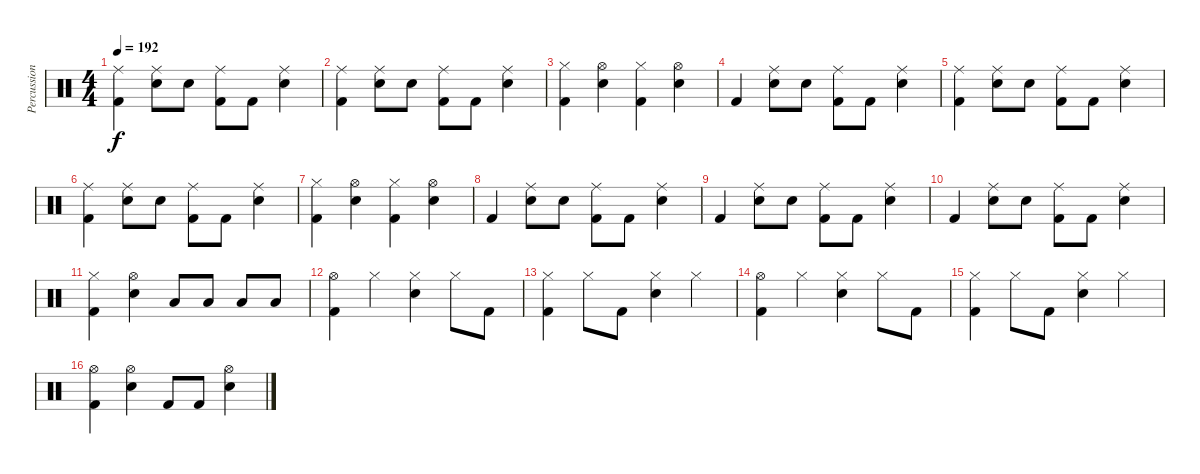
\track ("Percussions" "Percussion") {instrument percussion}
\staff {score}
\articulation defaults
\ts (4 4)
\tempo 192
\clef neutral
\ks c
("Kick (hit) 2" "Ride (middle)").4{dy f} ("Electric Snare (hit)" "Ride (middle)").8 "Electric Snare (hit)".8 ("Kick (hit) 2" "Ride (middle)").8 "Kick (hit) 2".8 ("Electric Snare (hit)" "Ride (middle)").4 |
("Kick (hit) 2" "Ride (middle)").4 ("Electric Snare (hit)" "Ride (middle)").8 "Electric Snare (hit)".8 ("Kick (hit) 2" "Ride (middle)").8 "Kick (hit) 2".8 ("Electric Snare (hit)" "Ride (middle)").4 |
("Kick (hit) 2" "Hi-Hat (closed)").4 ("Electric Snare (hit)" "Hi-Hat (open)").4 ("Kick (hit) 2" "Hi-Hat (closed)").4 ("Electric Snare (hit)" "Hi-Hat (open)").4 |
"Kick (hit) 2".4 ("Electric Snare (hit)" "Ride (middle)").8 "Electric Snare (hit)".8 ("Kick (hit) 2" "Ride (middle)").8 "Kick (hit) 2".8 ("Electric Snare (hit)" "Ride (middle)").4 |
("Kick (hit) 2" "Ride (middle)").4 ("Electric Snare (hit)" "Ride (middle)").8 "Electric Snare (hit)".8 ("Kick (hit) 2" "Ride (middle)").8 "Kick (hit) 2".8 ("Electric Snare (hit)" "Ride (middle)").4 |
("Kick (hit) 2" "Ride (middle)").4 ("Electric Snare (hit)" "Ride (middle)").8 "Electric Snare (hit)".8 ("Kick (hit) 2" "Ride (middle)").8 "Kick (hit) 2".8 ("Electric Snare (hit)" "Ride (middle)").4 |
("Kick (hit) 2" "Hi-Hat (closed)").4 ("Electric Snare (hit)" "Hi-Hat (open)").4 ("Kick (hit) 2" "Hi-Hat (closed)").4 ("Electric Snare (hit)" "Hi-Hat (open)").4 |
"Kick (hit) 2".4 ("Electric Snare (hit)" "Ride (middle)").8 "Electric Snare (hit)".8 ("Kick (hit) 2" "Ride (middle)").8 "Kick (hit) 2".8 ("Electric Snare (hit)" "Ride (middle)").4 |
"Kick (hit) 2".4 ("Electric Snare (hit)" "Ride (middle)").8 "Electric Snare (hit)".8 ("Kick (hit) 2" "Ride (middle)").8 "Kick (hit) 2".8 ("Electric Snare (hit)" "Ride (middle)").4 |
"Kick (hit) 2".4 ("Electric Snare (hit)" "Ride (middle)").8 "Electric Snare (hit)".8 ("Kick (hit) 2" "Ride (middle)").8 "Kick (hit) 2".8 ("Electric Snare (hit)" "Ride (middle)").4 |
("Kick (hit) 2" "Hi-Hat (closed)").4 ("Electric Snare (hit)" "Hi-Hat (open)").4 "Low Tom (hit)".8 "Low Tom (hit)".8 "Low Tom (hit)".8 "Low Tom (hit)".8 |
("Kick (hit) 2" "Hi-Hat (open)").4 "Hi-Hat (closed)".4 ("Electric Snare (hit)" "Hi-Hat (closed)").4 "Hi-Hat (closed)".8 "Kick (hit) 2".8 |
("Kick (hit) 2" "Hi-Hat (closed)").4 "Hi-Hat (closed)".8 "Kick (hit) 2".8 ("Electric Snare (hit)" "Hi-Hat (closed)").4 "Hi-Hat (closed)".4 |
("Kick (hit) 2" "Hi-Hat (open)").4 "Hi-Hat (closed)".4 ("Electric Snare (hit)" "Hi-Hat (closed)").4 "Hi-Hat (closed)".8 "Kick (hit) 2".8 |
("Kick (hit) 2" "Hi-Hat (closed)").4 "Hi-Hat (closed)".8 "Kick (hit) 2".8 ("Electric Snare (hit)" "Hi-Hat (closed)").4 "Hi-Hat (closed)".4 |
("Kick (hit) 2" "Hi-Hat (open)").4 ("Electric Snare (hit)" "Hi-Hat (open)").4 "Kick (hit) 2".8 "Kick (hit) 2".8 ("Electric Snare (hit)" "Hi-Hat (open)").4
